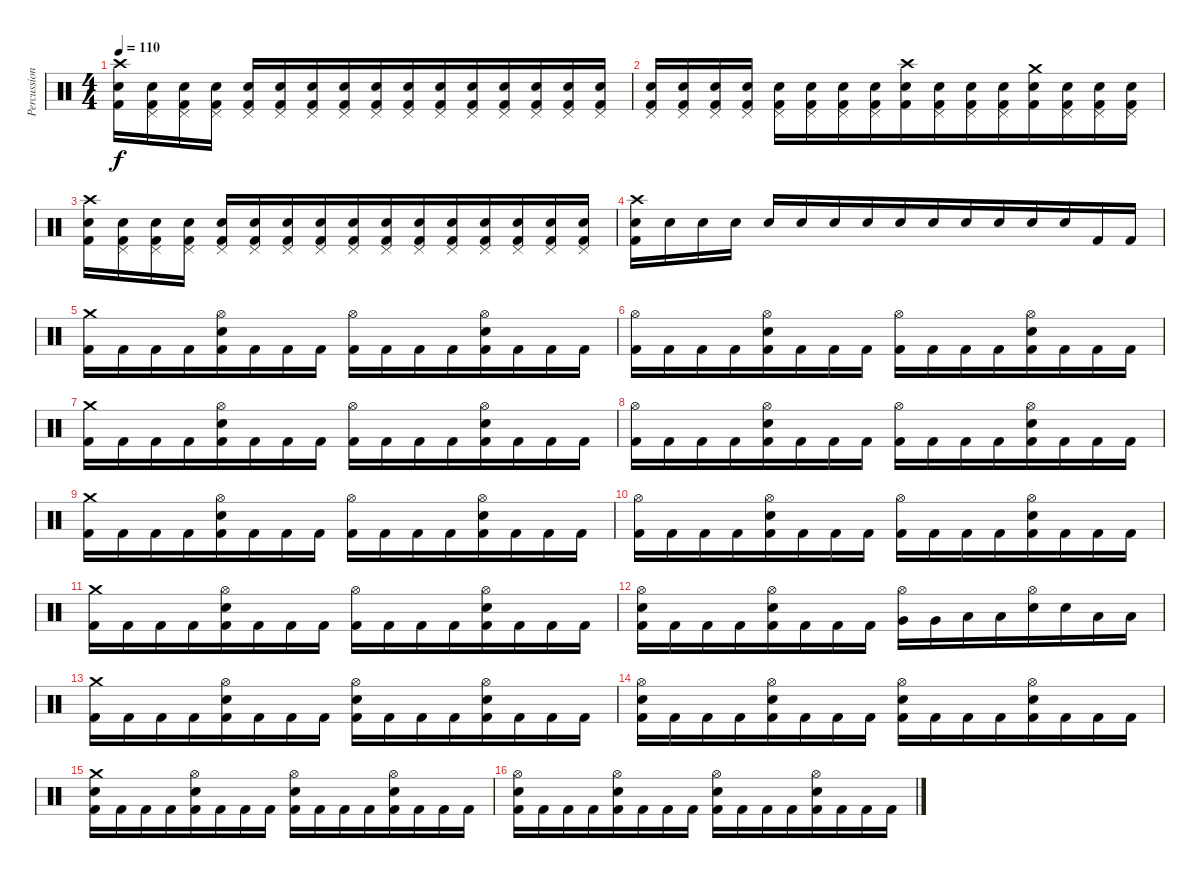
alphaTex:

\track ("Percussion" "Percussion") {instrument percussion bank 36}
\staff {score}
\articulation defaults
\ts (4 4)
\tempo 110
\clef neutral
\ks c
("Crash high (hit)" "Electric Snare (hit)" "Kick (hit) 2").16{dy f} ("Pedal Hi-Hat (hit)" "Electric Snare (hit)" "Kick (hit) 2").16 ("Pedal Hi-Hat (hit)" "Electric Snare (hit)" "Kick (hit) 2").16 ("Pedal Hi-Hat (hit)" "Electric Snare (hit)" "Kick (hit) 2").16 ("Pedal Hi-Hat (hit)" "Electric Snare (hit)" "Kick (hit) 2").16 ("Pedal Hi-Hat (hit)" "Electric Snare (hit)" "Kick (hit) 2").16 ("Pedal Hi-Hat (hit)" "Electric Snare (hit)" "Kick (hit) 2").16 ("Pedal Hi-Hat (hit)" "Electric Snare (hit)" "Kick (hit) 2").16{beam merge} ("Pedal Hi-Hat (hit)" "Electric Snare (hit)" "Kick (hit) 2").16{beam merge} ("Pedal Hi-Hat (hit)" "Electric Snare (hit)" "Kick (hit) 2").16{beam merge} ("Pedal Hi-Hat (hit)" "Electric Snare (hit)" "Kick (hit) 2").16 ("Pedal Hi-Hat (hit)" "Electric Snare (hit)" "Kick (hit) 2").16{beam merge} ("Pedal Hi-Hat (hit)" "Electric Snare (hit)" "Kick (hit) 2").16{beam merge} ("Pedal Hi-Hat (hit)" "Electric Snare (hit)" "Kick (hit) 2").16{beam merge} ("Pedal Hi-Hat (hit)" "Electric Snare (hit)" "Kick (hit) 2").16 ("Pedal Hi-Hat (hit)" "Electric Snare (hit)" "Kick (hit) 2").16 |
("Pedal Hi-Hat (hit)" "Electric Snare (hit)" "Kick (hit) 2").16 ("Pedal Hi-Hat (hit)" "Electric Snare (hit)" "Kick (hit) 2").16 ("Pedal Hi-Hat (hit)" "Electric Snare (hit)" "Kick (hit) 2").16 ("Pedal Hi-Hat (hit)" "Electric Snare (hit)" "Kick (hit) 2").16 ("Pedal Hi-Hat (hit)" "Electric Snare (hit)" "Kick (hit) 2").16 ("Pedal Hi-Hat (hit)" "Electric Snare (hit)" "Kick (hit) 2").16 ("Pedal Hi-Hat (hit)" "Electric Snare (hit)" "Kick (hit) 2").16 ("Pedal Hi-Hat (hit)" "Electric Snare (hit)" "Kick (hit) 2").16{beam merge} ("Crash high (hit)" "Electric Snare (hit)" "Kick (hit) 2").16{beam merge} ("Pedal Hi-Hat (hit)" "Electric Snare (hit)" "Kick (hit) 2").16{beam merge} ("Pedal Hi-Hat (hit)" "Electric Snare (hit)" "Kick (hit) 2").16 ("Pedal Hi-Hat (hit)" "Electric Snare (hit)" "Kick (hit) 2").16{beam merge} ("Crash medium (hit)" "Electric Snare (hit)" "Kick (hit) 2").16{beam merge} ("Pedal Hi-Hat (hit)" "Electric Snare (hit)" "Kick (hit) 2").16{beam merge} ("Pedal Hi-Hat (hit)" "Electric Snare (hit)" "Kick (hit) 2").16 ("Pedal Hi-Hat (hit)" "Electric Snare (hit)" "Kick (hit) 2").16 |
("Crash high (hit)" "Electric Snare (hit)" "Kick (hit) 2").16 ("Pedal Hi-Hat (hit)" "Electric Snare (hit)" "Kick (hit) 2").16 ("Pedal Hi-Hat (hit)" "Electric Snare (hit)" "Kick (hit) 2").16 ("Pedal Hi-Hat (hit)" "Electric Snare (hit)" "Kick (hit) 2").16 ("Pedal Hi-Hat (hit)" "Electric Snare (hit)" "Kick (hit) 2").16 ("Pedal Hi-Hat (hit)" "Electric Snare (hit)" "Kick (hit) 2").16 ("Pedal Hi-Hat (hit)" "Electric Snare (hit)" "Kick (hit) 2").16 ("Pedal Hi-Hat (hit)" "Electric Snare (hit)" "Kick (hit) 2").16{beam merge} ("Pedal Hi-Hat (hit)" "Electric Snare (hit)" "Kick (hit) 2").16{beam merge} ("Pedal Hi-Hat (hit)" "Electric Snare (hit)" "Kick (hit) 2").16{beam merge} ("Pedal Hi-Hat (hit)" "Electric Snare (hit)" "Kick (hit) 2").16 ("Pedal Hi-Hat (hit)" "Electric Snare (hit)" "Kick (hit) 2").16{beam merge} ("Pedal Hi-Hat (hit)" "Electric Snare (hit)" "Kick (hit) 2").16{beam merge} ("Pedal Hi-Hat (hit)" "Electric Snare (hit)" "Kick (hit) 2").16{beam merge} ("Pedal Hi-Hat (hit)" "Electric Snare (hit)" "Kick (hit) 2").16 ("Pedal Hi-Hat (hit)" "Electric Snare (hit)" "Kick (hit) 2").16 |
("Crash high (hit)" "Electric Snare (hit)" "Kick (hit) 2").16 "Electric Snare (hit)".16 "Electric Snare (hit)".16 "Electric Snare (hit)".16 "Electric Snare (hit)".16 "Electric Snare (hit)".16 "Electric Snare (hit)".16 "Electric Snare (hit)".16{beam merge} "Electric Snare (hit)".16{beam merge} "Electric Snare (hit)".16{beam merge} "Electric Snare (hit)".16 "Electric Snare (hit)".16{beam merge} "Electric Snare (hit)".16{beam merge} "Electric Snare (hit)".16{beam merge} "Kick (hit) 2".16 "Kick (hit) 2".16 |
("Crash medium (hit)" "Kick (hit) 2").16 "Kick (hit) 2".16 "Kick (hit) 2".16 "Kick (hit) 2".16{beam merge} ("Hi-Hat (open)" "Electric Snare (hit)" "Kick (hit) 2").16{beam merge} "Kick (hit) 2".16{beam merge} "Kick (hit) 2".16 "Kick (hit) 2".16 ("Hi-Hat (open)" "Kick (hit) 2").16 "Kick (hit) 2".16 "Kick (hit) 2".16 "Kick (hit) 2".16{beam merge} ("Hi-Hat (open)" "Electric Snare (hit)" "Kick (hit) 2").16{beam merge} "Kick (hit) 2".16{beam merge} "Kick (hit) 2".16 "Kick (hit) 2".16 |
("Hi-Hat (open)" "Kick (hit) 2").16 "Kick (hit) 2".16 "Kick (hit) 2".16 "Kick (hit) 2".16{beam merge} ("Hi-Hat (open)" "Electric Snare (hit)" "Kick (hit) 2").16{beam merge} "Kick (hit) 2".16{beam merge} "Kick (hit) 2".16 "Kick (hit) 2".16 ("Hi-Hat (open)" "Kick (hit) 2").16 "Kick (hit) 2".16 "Kick (hit) 2".16 "Kick (hit) 2".16{beam merge} ("Hi-Hat (open)" "Electric Snare (hit)" "Kick (hit) 2").16{beam merge} "Kick (hit) 2".16{beam merge} "Kick (hit) 2".16 "Kick (hit) 2".16 |
("Crash medium (hit)" "Kick (hit) 2").16 "Kick (hit) 2".16 "Kick (hit) 2".16 "Kick (hit) 2".16{beam merge} ("Hi-Hat (open)" "Electric Snare (hit)" "Kick (hit) 2").16{beam merge} "Kick (hit) 2".16{beam merge} "Kick (hit) 2".16 "Kick (hit) 2".16 ("Hi-Hat (open)" "Kick (hit) 2").16 "Kick (hit) 2".16 "Kick (hit) 2".16 "Kick (hit) 2".16{beam merge} ("Hi-Hat (open)" "Electric Snare (hit)" "Kick (hit) 2").16{beam merge} "Kick (hit) 2".16{beam merge} "Kick (hit) 2".16 "Kick (hit) 2".16 |
("Hi-Hat (open)" "Kick (hit) 2").16 "Kick (hit) 2".16 "Kick (hit) 2".16 "Kick (hit) 2".16{beam merge} ("Hi-Hat (open)" "Electric Snare (hit)" "Kick (hit) 2").16{beam merge} "Kick (hit) 2".16{beam merge} "Kick (hit) 2".16 "Kick (hit) 2".16 ("Hi-Hat (open)" "Kick (hit) 2").16 "Kick (hit) 2".16 "Kick (hit) 2".16 "Kick (hit) 2".16{beam merge} ("Hi-Hat (open)" "Electric Snare (hit)" "Kick (hit) 2").16{beam merge} "Kick (hit) 2".16{beam merge} "Kick (hit) 2".16 "Kick (hit) 2".16 |
("Crash medium (hit)" "Kick (hit) 2").16 "Kick (hit) 2".16 "Kick (hit) 2".16 "Kick (hit) 2".16{beam merge} ("Hi-Hat (open)" "Electric Snare (hit)" "Kick (hit) 2").16{beam merge} "Kick (hit) 2".16{beam merge} "Kick (hit) 2".16 "Kick (hit) 2".16 ("Hi-Hat (open)" "Kick (hit) 2").16 "Kick (hit) 2".16 "Kick (hit) 2".16 "Kick (hit) 2".16{beam merge} ("Hi-Hat (open)" "Electric Snare (hit)" "Kick (hit) 2").16{beam merge} "Kick (hit) 2".16{beam merge} "Kick (hit) 2".16 "Kick (hit) 2".16 |
("Hi-Hat (open)" "Kick (hit) 2").16 "Kick (hit) 2".16 "Kick (hit) 2".16 "Kick (hit) 2".16{beam merge} ("Hi-Hat (open)" "Electric Snare (hit)" "Kick (hit) 2").16{beam merge} "Kick (hit) 2".16{beam merge} "Kick (hit) 2".16 "Kick (hit) 2".16 ("Hi-Hat (open)" "Kick (hit) 2").16 "Kick (hit) 2".16 "Kick (hit) 2".16 "Kick (hit) 2".16{beam merge} ("Hi-Hat (open)" "Electric Snare (hit)" "Kick (hit) 2").16{beam merge} "Kick (hit) 2".16{beam merge} "Kick (hit) 2".16 "Kick (hit) 2".16 |
("Crash medium (hit)" "Kick (hit) 2").16 "Kick (hit) 2".16 "Kick (hit) 2".16 "Kick (hit) 2".16{beam merge} ("Hi-Hat (open)" "Electric Snare (hit)" "Kick (hit) 2").16{beam merge} "Kick (hit) 2".16{beam merge} "Kick (hit) 2".16 "Kick (hit) 2".16 ("Hi-Hat (open)" "Kick (hit) 2").16 "Kick (hit) 2".16 "Kick (hit) 2".16 "Kick (hit) 2".16{beam merge} ("Hi-Hat (open)" "Electric Snare (hit)" "Kick (hit) 2").16{beam merge} "Kick (hit) 2".16{beam merge} "Kick (hit) 2".16 "Kick (hit) 2".16 |
("Hi-Hat (open)" "Electric Snare (hit)" "Kick (hit) 2").16 "Kick (hit) 2".16 "Kick (hit) 2".16 "Kick (hit) 2".16{beam merge} ("Hi-Hat (open)" "Electric Snare (hit)" "Kick (hit) 2").16{beam merge} "Kick (hit) 2".16{beam merge} "Kick (hit) 2".16 "Kick (hit) 2".16 ("Hi-Hat (open)" "Very Low Tom (hit)").16 "Very Low Tom (hit)".16 "Low Floor Tom (hit)".16 "Low Floor Tom (hit)".16{beam merge} ("Hi-Hat (open)" "Electric Snare (hit)").16{beam merge} "Electric Snare (hit)".16 "Low Floor Tom (hit)".16{beam merge} "Low Floor Tom (hit)".16 |
("Crash medium (hit)" "Kick (hit) 2").16 "Kick (hit) 2".16 "Kick (hit) 2".16 "Kick (hit) 2".16{beam merge} ("Hi-Hat (open)" "Electric Snare (hit)" "Kick (hit) 2").16{beam merge} "Kick (hit) 2".16{beam merge} "Kick (hit) 2".16 "Kick (hit) 2".16 ("Hi-Hat (open)" "Electric Snare (hit)" "Kick (hit) 2").16 "Kick (hit) 2".16 "Kick (hit) 2".16 "Kick (hit) 2".16{beam merge} ("Hi-Hat (open)" "Electric Snare (hit)" "Kick (hit) 2").16{beam merge} "Kick (hit) 2".16{beam merge} "Kick (hit) 2".16 "Kick (hit) 2".16 |
("Hi-Hat (open)" "Electric Snare (hit)" "Kick (hit) 2").16 "Kick (hit) 2".16 "Kick (hit) 2".16 "Kick (hit) 2".16{beam merge} ("Hi-Hat (open)" "Electric Snare (hit)" "Kick (hit) 2").16{beam merge} "Kick (hit) 2".16{beam merge} "Kick (hit) 2".16 "Kick (hit) 2".16 ("Hi-Hat (open)" "Electric Snare (hit)" "Kick (hit) 2").16 "Kick (hit) 2".16 "Kick (hit) 2".16 "Kick (hit) 2".16{beam merge} ("Hi-Hat (open)" "Electric Snare (hit)" "Kick (hit) 2").16{beam merge} "Kick (hit) 2".16{beam merge} "Kick (hit) 2".16 "Kick (hit) 2".16 |
("Crash medium (hit)" "Electric Snare (hit)" "Kick (hit) 2").16 "Kick (hit) 2".16 "Kick (hit) 2".16 "Kick (hit) 2".16{beam merge} ("Hi-Hat (open)" "Electric Snare (hit)" "Kick (hit) 2").16{beam merge} "Kick (hit) 2".16{beam merge} "Kick (hit) 2".16 "Kick (hit) 2".16 ("Hi-Hat (open)" "Electric Snare (hit)" "Kick (hit) 2").16 "Kick (hit) 2".16 "Kick (hit) 2".16 "Kick (hit) 2".16{beam merge} ("Hi-Hat (open)" "Electric Snare (hit)" "Kick (hit) 2").16{beam merge} "Kick (hit) 2".16{beam merge} "Kick (hit) 2".16 "Kick (hit) 2".16 |
("Hi-Hat (open)" "Electric Snare (hit)" "Kick (hit) 2").16 "Kick (hit) 2".16 "Kick (hit) 2".16 "Kick (hit) 2".16{beam merge} ("Hi-Hat (open)" "Electric Snare (hit)" "Kick (hit) 2").16{beam merge} "Kick (hit) 2".16{beam merge} "Kick (hit) 2".16 "Kick (hit) 2".16 ("Hi-Hat (open)" "Electric Snare (hit)" "Kick (hit) 2").16 "Kick (hit) 2".16 "Kick (hit) 2".16 "Kick (hit) 2".16{beam merge} ("Hi-Hat (open)" "Electric Snare (hit)" "Kick (hit) 2").16{beam merge} "Kick (hit) 2".16{beam merge} "Kick (hit) 2".16 "Kick (hit) 2".16
